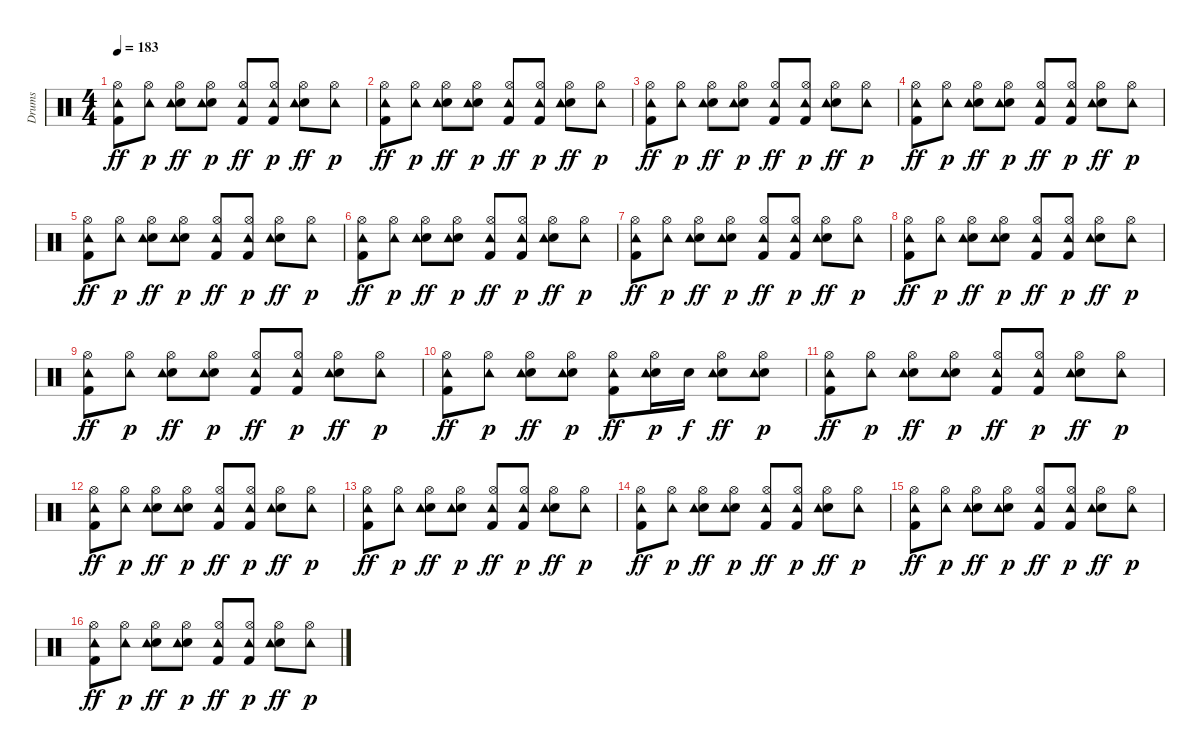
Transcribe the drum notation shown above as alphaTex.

\track ("Drums" "Drums") {instrument percussion}
\staff {score}
\articulation defaults
\ts (4 4)
\tempo 183
\clef neutral
\ks c
("Kick (hit) 2" "Hi-Hat (open)" "Tambourine (hit)").8{dy ff} ("Hi-Hat (open)" "Tambourine (hit)").8{dy p} ("Snare (hit) 2" "Hi-Hat (open)" "Tambourine (hit)").8{dy ff} ("Snare (hit) 2" "Hi-Hat (open)" "Tambourine (hit)").8{dy p} ("Kick (hit) 2" "Hi-Hat (open)" "Tambourine (hit)").8{dy ff} ("Kick (hit) 2" "Hi-Hat (open)" "Tambourine (hit)").8{dy p} ("Snare (hit) 2" "Hi-Hat (open)" "Tambourine (hit)").8{dy ff} ("Hi-Hat (open)" "Tambourine (hit)").8{dy p} |
("Kick (hit) 2" "Hi-Hat (open)" "Tambourine (hit)").8{dy ff} ("Hi-Hat (open)" "Tambourine (hit)").8{dy p} ("Snare (hit) 2" "Hi-Hat (open)" "Tambourine (hit)").8{dy ff} ("Snare (hit) 2" "Hi-Hat (open)" "Tambourine (hit)").8{dy p} ("Kick (hit) 2" "Hi-Hat (open)" "Tambourine (hit)").8{dy ff} ("Kick (hit) 2" "Hi-Hat (open)" "Tambourine (hit)").8{dy p} ("Snare (hit) 2" "Hi-Hat (open)" "Tambourine (hit)").8{dy ff} ("Hi-Hat (open)" "Tambourine (hit)").8{dy p} |
("Kick (hit) 2" "Hi-Hat (open)" "Tambourine (hit)").8{dy ff} ("Hi-Hat (open)" "Tambourine (hit)").8{dy p} ("Snare (hit) 2" "Hi-Hat (open)" "Tambourine (hit)").8{dy ff} ("Snare (hit) 2" "Hi-Hat (open)" "Tambourine (hit)").8{dy p} ("Kick (hit) 2" "Hi-Hat (open)" "Tambourine (hit)").8{dy ff} ("Kick (hit) 2" "Hi-Hat (open)" "Tambourine (hit)").8{dy p} ("Snare (hit) 2" "Hi-Hat (open)" "Tambourine (hit)").8{dy ff} ("Hi-Hat (open)" "Tambourine (hit)").8{dy p} |
("Kick (hit) 2" "Hi-Hat (open)" "Tambourine (hit)").8{dy ff} ("Hi-Hat (open)" "Tambourine (hit)").8{dy p} ("Snare (hit) 2" "Hi-Hat (open)" "Tambourine (hit)").8{dy ff} ("Snare (hit) 2" "Hi-Hat (open)" "Tambourine (hit)").8{dy p} ("Kick (hit) 2" "Hi-Hat (open)" "Tambourine (hit)").8{dy ff} ("Kick (hit) 2" "Hi-Hat (open)" "Tambourine (hit)").8{dy p} ("Snare (hit) 2" "Hi-Hat (open)" "Tambourine (hit)").8{dy ff} ("Hi-Hat (open)" "Tambourine (hit)").8{dy p} |
("Kick (hit) 2" "Hi-Hat (open)" "Tambourine (hit)").8{dy ff} ("Hi-Hat (open)" "Tambourine (hit)").8{dy p} ("Snare (hit) 2" "Hi-Hat (open)" "Tambourine (hit)").8{dy ff} ("Snare (hit) 2" "Hi-Hat (open)" "Tambourine (hit)").8{dy p} ("Kick (hit) 2" "Hi-Hat (open)" "Tambourine (hit)").8{dy ff} ("Kick (hit) 2" "Hi-Hat (open)" "Tambourine (hit)").8{dy p} ("Snare (hit) 2" "Hi-Hat (open)" "Tambourine (hit)").8{dy ff} ("Hi-Hat (open)" "Tambourine (hit)").8{dy p} |
("Kick (hit) 2" "Hi-Hat (open)" "Tambourine (hit)").8{dy ff} ("Hi-Hat (open)" "Tambourine (hit)").8{dy p} ("Snare (hit) 2" "Hi-Hat (open)" "Tambourine (hit)").8{dy ff} ("Snare (hit) 2" "Hi-Hat (open)" "Tambourine (hit)").8{dy p} ("Kick (hit) 2" "Hi-Hat (open)" "Tambourine (hit)").8{dy ff} ("Kick (hit) 2" "Hi-Hat (open)" "Tambourine (hit)").8{dy p} ("Snare (hit) 2" "Hi-Hat (open)" "Tambourine (hit)").8{dy ff} ("Hi-Hat (open)" "Tambourine (hit)").8{dy p} |
("Kick (hit) 2" "Hi-Hat (open)" "Tambourine (hit)").8{dy ff} ("Hi-Hat (open)" "Tambourine (hit)").8{dy p} ("Snare (hit) 2" "Hi-Hat (open)" "Tambourine (hit)").8{dy ff} ("Snare (hit) 2" "Hi-Hat (open)" "Tambourine (hit)").8{dy p} ("Kick (hit) 2" "Hi-Hat (open)" "Tambourine (hit)").8{dy ff} ("Kick (hit) 2" "Hi-Hat (open)" "Tambourine (hit)").8{dy p} ("Snare (hit) 2" "Hi-Hat (open)" "Tambourine (hit)").8{dy ff} ("Hi-Hat (open)" "Tambourine (hit)").8{dy p} |
("Kick (hit) 2" "Hi-Hat (open)" "Tambourine (hit)").8{dy ff} ("Hi-Hat (open)" "Tambourine (hit)").8{dy p} ("Snare (hit) 2" "Hi-Hat (open)" "Tambourine (hit)").8{dy ff} ("Snare (hit) 2" "Hi-Hat (open)" "Tambourine (hit)").8{dy p} ("Kick (hit) 2" "Hi-Hat (open)" "Tambourine (hit)").8{dy ff} ("Kick (hit) 2" "Hi-Hat (open)" "Tambourine (hit)").8{dy p} ("Snare (hit) 2" "Hi-Hat (open)" "Tambourine (hit)").8{dy ff} ("Hi-Hat (open)" "Tambourine (hit)").8{dy p} |
("Kick (hit) 2" "Hi-Hat (open)" "Tambourine (hit)").8{dy ff} ("Hi-Hat (open)" "Tambourine (hit)").8{dy p} ("Snare (hit) 2" "Hi-Hat (open)" "Tambourine (hit)").8{dy ff} ("Snare (hit) 2" "Hi-Hat (open)" "Tambourine (hit)").8{dy p} ("Kick (hit) 2" "Hi-Hat (open)" "Tambourine (hit)").8{dy ff} ("Kick (hit) 2" "Hi-Hat (open)" "Tambourine (hit)").8{dy p} ("Snare (hit) 2" "Hi-Hat (open)" "Tambourine (hit)").8{dy ff} ("Hi-Hat (open)" "Tambourine (hit)").8{dy p} |
("Kick (hit) 2" "Hi-Hat (open)" "Tambourine (hit)").8{dy ff} ("Hi-Hat (open)" "Tambourine (hit)").8{dy p} ("Snare (hit) 2" "Hi-Hat (open)" "Tambourine (hit)").8{dy ff} ("Snare (hit) 2" "Hi-Hat (open)" "Tambourine (hit)").8{dy p} ("Kick (hit) 2" "Hi-Hat (open)" "Tambourine (hit)").8{dy ff} ("Snare (hit) 2" "Hi-Hat (open)" "Tambourine (hit)").16{dy p} "Snare (hit) 2".16{dy f} ("Snare (hit) 2" "Hi-Hat (open)" "Tambourine (hit)").8{dy ff} ("Snare (hit) 2" "Hi-Hat (open)" "Tambourine (hit)").8{dy p} |
("Kick (hit) 2" "Hi-Hat (open)" "Tambourine (hit)").8{dy ff} ("Hi-Hat (open)" "Tambourine (hit)").8{dy p} ("Snare (hit) 2" "Hi-Hat (open)" "Tambourine (hit)").8{dy ff} ("Snare (hit) 2" "Hi-Hat (open)" "Tambourine (hit)").8{dy p} ("Kick (hit) 2" "Hi-Hat (open)" "Tambourine (hit)").8{dy ff} ("Kick (hit) 2" "Hi-Hat (open)" "Tambourine (hit)").8{dy p} ("Snare (hit) 2" "Hi-Hat (open)" "Tambourine (hit)").8{dy ff} ("Hi-Hat (open)" "Tambourine (hit)").8{dy p} |
("Kick (hit) 2" "Hi-Hat (open)" "Tambourine (hit)").8{dy ff} ("Hi-Hat (open)" "Tambourine (hit)").8{dy p} ("Snare (hit) 2" "Hi-Hat (open)" "Tambourine (hit)").8{dy ff} ("Snare (hit) 2" "Hi-Hat (open)" "Tambourine (hit)").8{dy p} ("Kick (hit) 2" "Hi-Hat (open)" "Tambourine (hit)").8{dy ff} ("Kick (hit) 2" "Hi-Hat (open)" "Tambourine (hit)").8{dy p} ("Snare (hit) 2" "Hi-Hat (open)" "Tambourine (hit)").8{dy ff} ("Hi-Hat (open)" "Tambourine (hit)").8{dy p} |
("Kick (hit) 2" "Hi-Hat (open)" "Tambourine (hit)").8{dy ff} ("Hi-Hat (open)" "Tambourine (hit)").8{dy p} ("Snare (hit) 2" "Hi-Hat (open)" "Tambourine (hit)").8{dy ff} ("Snare (hit) 2" "Hi-Hat (open)" "Tambourine (hit)").8{dy p} ("Kick (hit) 2" "Hi-Hat (open)" "Tambourine (hit)").8{dy ff} ("Kick (hit) 2" "Hi-Hat (open)" "Tambourine (hit)").8{dy p} ("Snare (hit) 2" "Hi-Hat (open)" "Tambourine (hit)").8{dy ff} ("Hi-Hat (open)" "Tambourine (hit)").8{dy p} |
("Kick (hit) 2" "Hi-Hat (open)" "Tambourine (hit)").8{dy ff} ("Hi-Hat (open)" "Tambourine (hit)").8{dy p} ("Snare (hit) 2" "Hi-Hat (open)" "Tambourine (hit)").8{dy ff} ("Snare (hit) 2" "Hi-Hat (open)" "Tambourine (hit)").8{dy p} ("Kick (hit) 2" "Hi-Hat (open)" "Tambourine (hit)").8{dy ff} ("Kick (hit) 2" "Hi-Hat (open)" "Tambourine (hit)").8{dy p} ("Snare (hit) 2" "Hi-Hat (open)" "Tambourine (hit)").8{dy ff} ("Hi-Hat (open)" "Tambourine (hit)").8{dy p} |
("Kick (hit) 2" "Hi-Hat (open)" "Tambourine (hit)").8{dy ff} ("Hi-Hat (open)" "Tambourine (hit)").8{dy p} ("Snare (hit) 2" "Hi-Hat (open)" "Tambourine (hit)").8{dy ff} ("Snare (hit) 2" "Hi-Hat (open)" "Tambourine (hit)").8{dy p} ("Kick (hit) 2" "Hi-Hat (open)" "Tambourine (hit)").8{dy ff} ("Kick (hit) 2" "Hi-Hat (open)" "Tambourine (hit)").8{dy p} ("Snare (hit) 2" "Hi-Hat (open)" "Tambourine (hit)").8{dy ff} ("Hi-Hat (open)" "Tambourine (hit)").8{dy p} |
("Kick (hit) 2" "Hi-Hat (open)" "Tambourine (hit)").8{dy ff} ("Hi-Hat (open)" "Tambourine (hit)").8{dy p} ("Snare (hit) 2" "Hi-Hat (open)" "Tambourine (hit)").8{dy ff} ("Snare (hit) 2" "Hi-Hat (open)" "Tambourine (hit)").8{dy p} ("Kick (hit) 2" "Hi-Hat (open)" "Tambourine (hit)").8{dy ff} ("Kick (hit) 2" "Hi-Hat (open)" "Tambourine (hit)").8{dy p} ("Snare (hit) 2" "Hi-Hat (open)" "Tambourine (hit)").8{dy ff} ("Hi-Hat (open)" "Tambourine (hit)").8{dy p}
